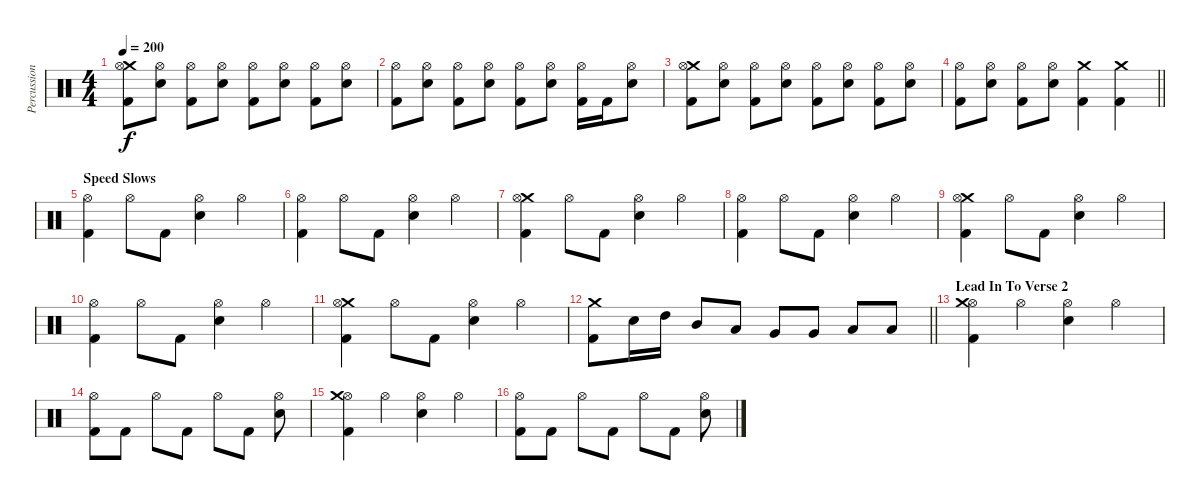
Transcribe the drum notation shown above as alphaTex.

\track ("Percussion" "Percussion") {instrument percussion}
\staff {score}
\articulation defaults
\ts (4 4)
\tempo 200
\clef neutral
\ks c
("Kick (hit) 2" "Crash medium (hit)" "Hi-Hat (open)").8{dy f} ("Electric Snare (hit)" "Hi-Hat (open)").8 ("Kick (hit) 2" "Hi-Hat (open)").8 ("Electric Snare (hit)" "Hi-Hat (open)").8 ("Kick (hit) 2" "Hi-Hat (open)").8 ("Electric Snare (hit)" "Hi-Hat (open)").8 ("Kick (hit) 2" "Hi-Hat (open)").8 ("Electric Snare (hit)" "Hi-Hat (open)").8 |
("Kick (hit) 2" "Hi-Hat (open)").8 ("Electric Snare (hit)" "Hi-Hat (open)").8 ("Kick (hit) 2" "Hi-Hat (open)").8 ("Electric Snare (hit)" "Hi-Hat (open)").8 ("Kick (hit) 2" "Hi-Hat (open)").8 ("Electric Snare (hit)" "Hi-Hat (open)").8 ("Kick (hit) 2" "Hi-Hat (open)").16 "Kick (hit) 2".16 ("Electric Snare (hit)" "Hi-Hat (open)").8 |
("Kick (hit) 2" "Crash medium (hit)" "Hi-Hat (open)").8 ("Electric Snare (hit)" "Hi-Hat (open)").8 ("Kick (hit) 2" "Hi-Hat (open)").8 ("Electric Snare (hit)" "Hi-Hat (open)").8 ("Kick (hit) 2" "Hi-Hat (open)").8 ("Electric Snare (hit)" "Hi-Hat (open)").8 ("Kick (hit) 2" "Hi-Hat (open)").8 ("Electric Snare (hit)" "Hi-Hat (open)").8 |
\barLineRight lightlight
("Kick (hit) 2" "Hi-Hat (open)").8 ("Electric Snare (hit)" "Hi-Hat (open)").8 ("Kick (hit) 2" "Hi-Hat (open)").8 ("Electric Snare (hit)" "Hi-Hat (open)").8 ("Kick (hit) 2" "Crash medium (hit)").4 ("Kick (hit) 2" "Crash medium (hit)").4 |
\section ("" "Speed Slows")
("Kick (hit) 2" "Hi-Hat (open)").4 "Hi-Hat (open)".8 "Kick (hit) 2".8 ("Electric Snare (hit)" "Hi-Hat (open)").4 "Hi-Hat (open)".4 |
("Kick (hit) 2" "Hi-Hat (open)").4 "Hi-Hat (open)".8 "Kick (hit) 2".8 ("Electric Snare (hit)" "Hi-Hat (open)").4 "Hi-Hat (open)".4 |
("Kick (hit) 2" "Crash medium (hit)" "Hi-Hat (open)").4 "Hi-Hat (open)".8 "Kick (hit) 2".8 ("Electric Snare (hit)" "Hi-Hat (open)").4 "Hi-Hat (open)".4 |
("Kick (hit) 2" "Hi-Hat (open)").4 "Hi-Hat (open)".8 "Kick (hit) 2".8 ("Electric Snare (hit)" "Hi-Hat (open)").4 "Hi-Hat (open)".4 |
("Kick (hit) 2" "Crash medium (hit)" "Hi-Hat (open)").4 "Hi-Hat (open)".8 "Kick (hit) 2".8 ("Electric Snare (hit)" "Hi-Hat (open)").4 "Hi-Hat (open)".4 |
("Kick (hit) 2" "Hi-Hat (open)").4 "Hi-Hat (open)".8 "Kick (hit) 2".8 ("Electric Snare (hit)" "Hi-Hat (open)").4 "Hi-Hat (open)".4 |
("Kick (hit) 2" "Crash medium (hit)" "Hi-Hat (open)").4 "Hi-Hat (open)".8 "Kick (hit) 2".8 ("Electric Snare (hit)" "Hi-Hat (open)").4 "Hi-Hat (open)".4 |
\barLineRight lightlight
("Kick (hit) 2" "Crash medium (hit)").8 "Electric Snare (hit)".16 "High Tom (hit)".16 "Mid Tom (hit)".8 "Low Tom (hit)".8 "Very Low Tom (hit)".8 "Very Low Tom (hit)".8 "Low Floor Tom (hit)".8 "Low Floor Tom (hit)".8 |
\section ("" "Lead In To Verse 2")
("Kick (hit) 2" "Hi-Hat (open)" "Crash medium (hit)").4 "Hi-Hat (open)".4 ("Electric Snare (hit)" "Hi-Hat (open)").4 "Hi-Hat (open)".4 |
("Kick (hit) 2" "Hi-Hat (open)").8 "Kick (hit) 2".8 "Hi-Hat (open)".8 "Kick (hit) 2".8 "Hi-Hat (open)".8 "Kick (hit) 2".8 ("Electric Snare (hit)" "Hi-Hat (open)").8 |
("Kick (hit) 2" "Hi-Hat (open)" "Crash medium (hit)").4 "Hi-Hat (open)".4 ("Electric Snare (hit)" "Hi-Hat (open)").4 "Hi-Hat (open)".4 |
("Kick (hit) 2" "Hi-Hat (open)").8 "Kick (hit) 2".8 "Hi-Hat (open)".8 "Kick (hit) 2".8 "Hi-Hat (open)".8 "Kick (hit) 2".8 ("Electric Snare (hit)" "Hi-Hat (open)").8
